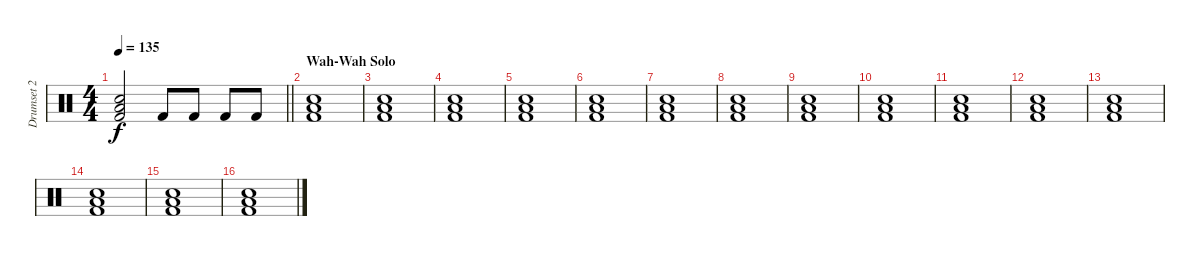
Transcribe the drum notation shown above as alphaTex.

\track ("Drumset 2" "Drumset 2") {instrument percussion}
\staff {score}
\articulation defaults
\ts (4 4)
\tempo 135
\clef neutral
\barLineRight lightlight
\ks c
("Electric Snare (hit)" "Low Floor Tom (hit)" "Kick (hit) 2").2{dy f} "Kick (hit) 2".8 "Kick (hit) 2".8 "Kick (hit) 2".8 "Kick (hit) 2".8 |
\section ("" "Wah-Wah Solo")
("Electric Snare (hit)" "Low Floor Tom (hit)" "Kick (hit) 2").1 |
("Electric Snare (hit)" "Low Floor Tom (hit)" "Kick (hit) 2").1 |
("Electric Snare (hit)" "Low Floor Tom (hit)" "Kick (hit) 2").1 |
("Electric Snare (hit)" "Low Floor Tom (hit)" "Kick (hit) 2").1 |
("Electric Snare (hit)" "Low Floor Tom (hit)" "Kick (hit) 2").1 |
("Electric Snare (hit)" "Low Floor Tom (hit)" "Kick (hit) 2").1 |
("Electric Snare (hit)" "Low Floor Tom (hit)" "Kick (hit) 2").1 |
("Electric Snare (hit)" "Low Floor Tom (hit)" "Kick (hit) 2").1 |
("Electric Snare (hit)" "Low Floor Tom (hit)" "Kick (hit) 2").1 |
("Electric Snare (hit)" "Low Floor Tom (hit)" "Kick (hit) 2").1 |
("Electric Snare (hit)" "Low Floor Tom (hit)" "Kick (hit) 2").1 |
("Electric Snare (hit)" "Low Floor Tom (hit)" "Kick (hit) 2").1 |
("Electric Snare (hit)" "Low Floor Tom (hit)" "Kick (hit) 2").1 |
("Electric Snare (hit)" "Low Floor Tom (hit)" "Kick (hit) 2").1 |
("Electric Snare (hit)" "Low Floor Tom (hit)" "Kick (hit) 2").1
